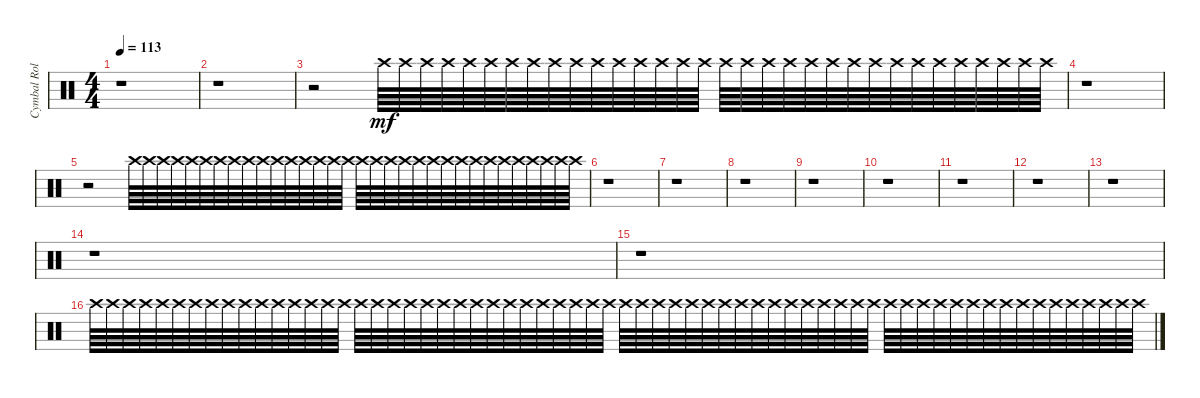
\track ("Cymbal Rolls" "Cymbal Rol") {instrument percussion}
\staff {score}
\articulation defaults
\ts (4 4)
\tempo 113
\clef neutral
\ks c
r.1{dy mf} |
r.1 |
r.2 "Crash high (hit)".64 "Crash high (hit)".64 "Crash high (hit)".64 "Crash high (hit)".64 "Crash high (hit)".64 "Crash high (hit)".64 "Crash high (hit)".64 "Crash high (hit)".64 "Crash high (hit)".64 "Crash high (hit)".64 "Crash high (hit)".64 "Crash high (hit)".64 "Crash high (hit)".64 "Crash high (hit)".64 "Crash high (hit)".64 "Crash high (hit)".64 "Crash high (hit)".64 "Crash high (hit)".64 "Crash high (hit)".64 "Crash high (hit)".64 "Crash high (hit)".64 "Crash high (hit)".64 "Crash high (hit)".64 "Crash high (hit)".64 "Crash high (hit)".64 "Crash high (hit)".64 "Crash high (hit)".64 "Crash high (hit)".64 "Crash high (hit)".64 "Crash high (hit)".64 "Crash high (hit)".64 "Crash high (hit)".64 |
r.1 |
r.2 "Crash high (hit)".64 "Crash high (hit)".64 "Crash high (hit)".64 "Crash high (hit)".64 "Crash high (hit)".64 "Crash high (hit)".64 "Crash high (hit)".64 "Crash high (hit)".64 "Crash high (hit)".64 "Crash high (hit)".64 "Crash high (hit)".64 "Crash high (hit)".64 "Crash high (hit)".64 "Crash high (hit)".64 "Crash high (hit)".64 "Crash high (hit)".64 "Crash high (hit)".64 "Crash high (hit)".64 "Crash high (hit)".64 "Crash high (hit)".64 "Crash high (hit)".64 "Crash high (hit)".64 "Crash high (hit)".64 "Crash high (hit)".64 "Crash high (hit)".64 "Crash high (hit)".64 "Crash high (hit)".64 "Crash high (hit)".64 "Crash high (hit)".64 "Crash high (hit)".64 "Crash high (hit)".64 "Crash high (hit)".64 |
r.1 |
r.1 |
r.1 |
r.1 |
r.1 |
r.1 |
r.1 |
r.1 |
r.1 |
r.1 |
"Crash high (hit)".64 "Crash high (hit)".64 "Crash high (hit)".64 "Crash high (hit)".64 "Crash high (hit)".64 "Crash high (hit)".64 "Crash high (hit)".64 "Crash high (hit)".64 "Crash high (hit)".64 "Crash high (hit)".64 "Crash high (hit)".64 "Crash high (hit)".64 "Crash high (hit)".64 "Crash high (hit)".64 "Crash high (hit)".64 "Crash high (hit)".64 "Crash high (hit)".64 "Crash high (hit)".64 "Crash high (hit)".64 "Crash high (hit)".64 "Crash high (hit)".64 "Crash high (hit)".64 "Crash high (hit)".64 "Crash high (hit)".64 "Crash high (hit)".64 "Crash high (hit)".64 "Crash high (hit)".64 "Crash high (hit)".64 "Crash high (hit)".64 "Crash high (hit)".64 "Crash high (hit)".64 "Crash high (hit)".64 "Crash high (hit)".64 "Crash high (hit)".64 "Crash high (hit)".64 "Crash high (hit)".64 "Crash high (hit)".64 "Crash high (hit)".64 "Crash high (hit)".64 "Crash high (hit)".64 "Crash high (hit)".64 "Crash high (hit)".64 "Crash high (hit)".64 "Crash high (hit)".64 "Crash high (hit)".64 "Crash high (hit)".64 "Crash high (hit)".64 "Crash high (hit)".64 "Crash high (hit)".64 "Crash high (hit)".64 "Crash high (hit)".64 "Crash high (hit)".64 "Crash high (hit)".64 "Crash high (hit)".64 "Crash high (hit)".64 "Crash high (hit)".64 "Crash high (hit)".64 "Crash high (hit)".64 "Crash high (hit)".64 "Crash high (hit)".64 "Crash high (hit)".64 "Crash high (hit)".64 "Crash high (hit)".64 "Crash high (hit)".64
